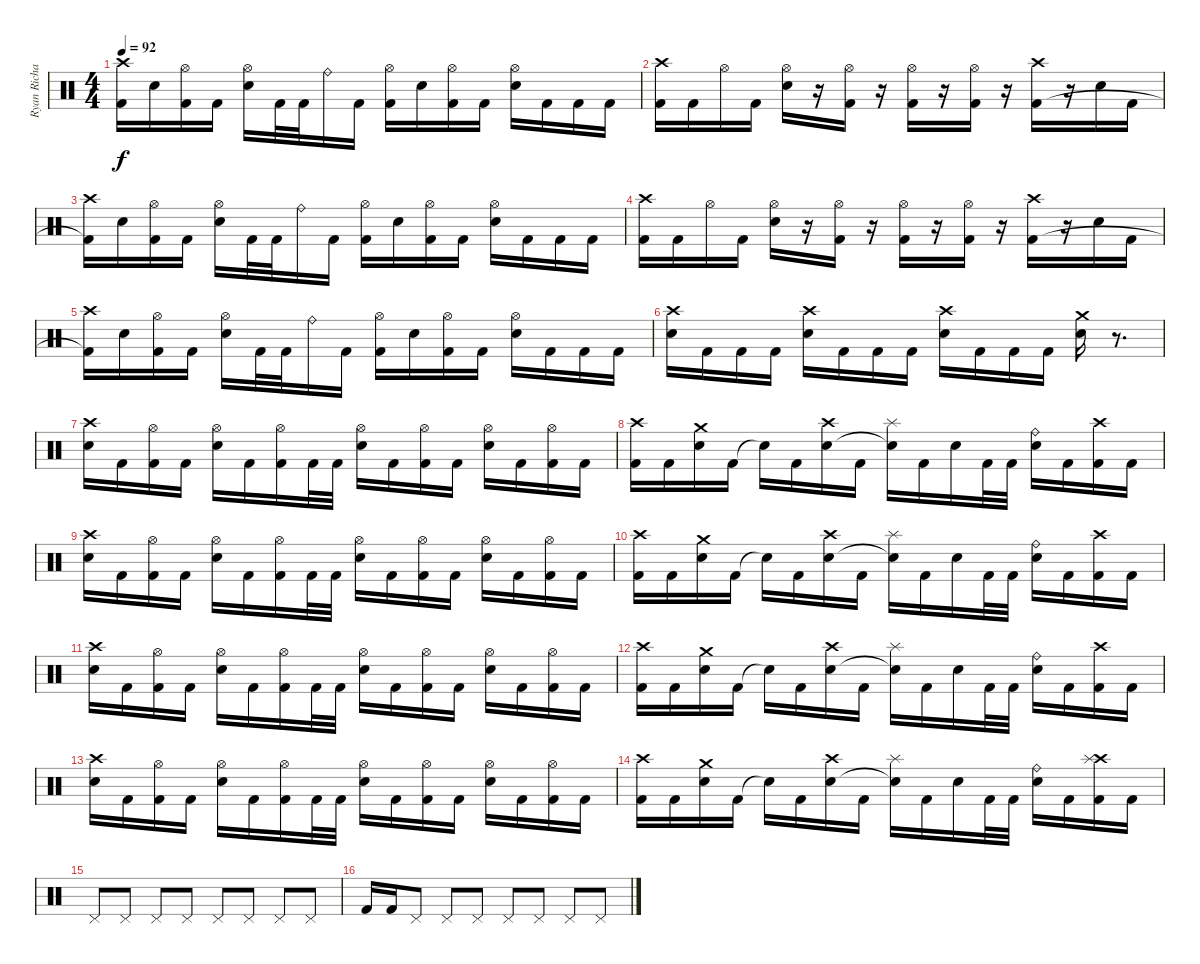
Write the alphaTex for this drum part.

\track ("Ryan Richards" "Ryan Richa") {instrument percussion}
\staff {score}
\articulation defaults
\ts (4 4)
\tempo 92
\clef neutral
\ks c
("Crash high (hit)" "Kick (hit) 2"{t}).16{dy f} "Snare (hit) 2".16 ("Hi-Hat (open)" "Kick (hit) 2").16 "Kick (hit) 2".16 ("Hi-Hat (open)" "Snare (hit) 2").16 "Kick (hit) 2".32 "Kick (hit) 2".32 "Ride (bell)".16 "Kick (hit) 2".16 ("Hi-Hat (open)" "Kick (hit) 2").16 "Snare (hit) 2".16 ("Hi-Hat (open)" "Kick (hit) 2").16 "Kick (hit) 2".16 ("Hi-Hat (open)" "Snare (hit) 2").16 "Kick (hit) 2".16 "Kick (hit) 2".16 "Kick (hit) 2".16 |
("Crash high (hit)" "Kick (hit) 2").16 "Kick (hit) 2".16 "Hi-Hat (open)".16 "Kick (hit) 2".16 ("Hi-Hat (open)" "Snare (hit) 2").16 r.16 ("Hi-Hat (open)" "Kick (hit) 2").16 r.16 ("Hi-Hat (open)" "Kick (hit) 2").16 r.16 ("Hi-Hat (open)" "Kick (hit) 2").16 r.16 ("Crash high (hit)" "Kick (hit) 2").16 r.16 "Snare (hit) 2".16 "Kick (hit) 2".16 |
("Crash high (hit)" "Kick (hit) 2"{t}).16 "Snare (hit) 2".16 ("Hi-Hat (open)" "Kick (hit) 2").16 "Kick (hit) 2".16 ("Hi-Hat (open)" "Snare (hit) 2").16 "Kick (hit) 2".32 "Kick (hit) 2".32 "Ride (bell)".16 "Kick (hit) 2".16 ("Hi-Hat (open)" "Kick (hit) 2").16 "Snare (hit) 2".16 ("Hi-Hat (open)" "Kick (hit) 2").16 "Kick (hit) 2".16 ("Hi-Hat (open)" "Snare (hit) 2").16 "Kick (hit) 2".16 "Kick (hit) 2".16 "Kick (hit) 2".16 |
("Crash high (hit)" "Kick (hit) 2").16 "Kick (hit) 2".16 "Hi-Hat (open)".16 "Kick (hit) 2".16 ("Hi-Hat (open)" "Snare (hit) 2").16 r.16 ("Hi-Hat (open)" "Kick (hit) 2").16 r.16 ("Hi-Hat (open)" "Kick (hit) 2").16 r.16 ("Hi-Hat (open)" "Kick (hit) 2").16 r.16 ("Crash high (hit)" "Kick (hit) 2").16 r.16 "Snare (hit) 2".16 "Kick (hit) 2".16 |
("Crash high (hit)" "Kick (hit) 2"{t}).16 "Snare (hit) 2".16 ("Hi-Hat (open)" "Kick (hit) 2").16 "Kick (hit) 2".16 ("Hi-Hat (open)" "Snare (hit) 2").16 "Kick (hit) 2".32 "Kick (hit) 2".32 "Ride (bell)".16 "Kick (hit) 2".16 ("Hi-Hat (open)" "Kick (hit) 2").16 "Snare (hit) 2".16 ("Hi-Hat (open)" "Kick (hit) 2").16 "Kick (hit) 2".16 ("Hi-Hat (open)" "Snare (hit) 2").16 "Kick (hit) 2".16 "Kick (hit) 2".16 "Kick (hit) 2".16 |
("Crash high (hit)" "Snare (hit) 2").16 "Kick (hit) 2".16 "Kick (hit) 2".16 "Kick (hit) 2".16 ("Crash high (hit)" "Snare (hit) 2").16 "Kick (hit) 2".16 "Kick (hit) 2".16 "Kick (hit) 2".16 ("Crash high (hit)" "Snare (hit) 2").16 "Kick (hit) 2".16 "Kick (hit) 2".16 "Kick (hit) 2".16 ("Crash medium (hit)" "Snare (hit) 2").16 r.8{d} |
("Crash high (hit)" "Snare (hit) 2").16 "Kick (hit) 2".16 ("Hi-Hat (open)" "Kick (hit) 2").16 "Kick (hit) 2".16 ("Hi-Hat (open)" "Snare (hit) 2").16 "Kick (hit) 2".16 ("Hi-Hat (open)" "Kick (hit) 2").16 "Kick (hit) 2".32 "Kick (hit) 2".32 ("Hi-Hat (open)" "Snare (hit) 2").16 "Kick (hit) 2".16 ("Hi-Hat (open)" "Kick (hit) 2").16 "Kick (hit) 2".16 ("Hi-Hat (open)" "Snare (hit) 2").16 "Kick (hit) 2".16 ("Hi-Hat (open)" "Kick (hit) 2").16 "Kick (hit) 2".16 |
("Crash high (hit)" "Kick (hit) 2").16 "Kick (hit) 2".16 ("Crash medium (hit)" "Snare (hit) 2").16 "Kick (hit) 2".16 "Snare (hit)"{t}.16 "Kick (hit) 2".16 ("Crash high (hit)" "Snare (hit) 2").16 "Kick (hit) 2".16 ("Splash (hit)" "Snare (hit)"{t}).16 "Kick (hit) 2".16 "Snare (hit) 2".16 "Kick (hit) 2".32 "Kick (hit) 2".32 ("Ride (bell)" "Snare (hit) 2").16 "Kick (hit) 2".16 ("Crash high (hit)" "Kick (hit) 2").16 "Kick (hit) 2".16 |
("Crash high (hit)" "Snare (hit) 2").16 "Kick (hit) 2".16 ("Hi-Hat (open)" "Kick (hit) 2").16 "Kick (hit) 2".16 ("Hi-Hat (open)" "Snare (hit) 2").16 "Kick (hit) 2".16 ("Hi-Hat (open)" "Kick (hit) 2").16 "Kick (hit) 2".32 "Kick (hit) 2".32 ("Hi-Hat (open)" "Snare (hit) 2").16 "Kick (hit) 2".16 ("Hi-Hat (open)" "Kick (hit) 2").16 "Kick (hit) 2".16 ("Hi-Hat (open)" "Snare (hit) 2").16 "Kick (hit) 2".16 ("Hi-Hat (open)" "Kick (hit) 2").16 "Kick (hit) 2".16 |
("Crash high (hit)" "Kick (hit) 2").16 "Kick (hit) 2".16 ("Crash medium (hit)" "Snare (hit) 2").16 "Kick (hit) 2".16 "Snare (hit)"{t}.16 "Kick (hit) 2".16 ("Crash high (hit)" "Snare (hit) 2").16 "Kick (hit) 2".16 ("Splash (hit)" "Snare (hit)"{t}).16 "Kick (hit) 2".16 "Snare (hit) 2".16 "Kick (hit) 2".32 "Kick (hit) 2".32 ("Ride (bell)" "Snare (hit) 2").16 "Kick (hit) 2".16 ("Crash high (hit)" "Kick (hit) 2").16 "Kick (hit) 2".16 |
("Crash high (hit)" "Snare (hit) 2").16 "Kick (hit) 2".16 ("Hi-Hat (open)" "Kick (hit) 2").16 "Kick (hit) 2".16 ("Hi-Hat (open)" "Snare (hit) 2").16 "Kick (hit) 2".16 ("Hi-Hat (open)" "Kick (hit) 2").16 "Kick (hit) 2".32 "Kick (hit) 2".32 ("Hi-Hat (open)" "Snare (hit) 2").16 "Kick (hit) 2".16 ("Hi-Hat (open)" "Kick (hit) 2").16 "Kick (hit) 2".16 ("Hi-Hat (open)" "Snare (hit) 2").16 "Kick (hit) 2".16 ("Hi-Hat (open)" "Kick (hit) 2").16 "Kick (hit) 2".16 |
("Crash high (hit)" "Kick (hit) 2").16 "Kick (hit) 2".16 ("Crash medium (hit)" "Snare (hit) 2").16 "Kick (hit) 2".16 "Snare (hit)"{t}.16 "Kick (hit) 2".16 ("Crash high (hit)" "Snare (hit) 2").16 "Kick (hit) 2".16 ("Splash (hit)" "Snare (hit)"{t}).16 "Kick (hit) 2".16 "Snare (hit) 2".16 "Kick (hit) 2".32 "Kick (hit) 2".32 ("Ride (bell)" "Snare (hit) 2").16 "Kick (hit) 2".16 ("Crash high (hit)" "Kick (hit) 2").16 "Kick (hit) 2".16 |
("Crash high (hit)" "Snare (hit) 2").16 "Kick (hit) 2".16 ("Hi-Hat (open)" "Kick (hit) 2").16 "Kick (hit) 2".16 ("Hi-Hat (open)" "Snare (hit) 2").16 "Kick (hit) 2".16 ("Hi-Hat (open)" "Kick (hit) 2").16 "Kick (hit) 2".32 "Kick (hit) 2".32 ("Hi-Hat (open)" "Snare (hit) 2").16 "Kick (hit) 2".16 ("Hi-Hat (open)" "Kick (hit) 2").16 "Kick (hit) 2".16 ("Hi-Hat (open)" "Snare (hit) 2").16 "Kick (hit) 2".16 ("Hi-Hat (open)" "Kick (hit) 2").16 "Kick (hit) 2".16 |
("Crash high (hit)" "Kick (hit) 2").16 "Kick (hit) 2".16 ("Crash medium (hit)" "Snare (hit) 2").16 "Kick (hit) 2".16 "Snare (hit)"{t}.16 "Kick (hit) 2".16 ("Crash high (hit)" "Snare (hit) 2").16 "Kick (hit) 2".16 ("Splash (hit)" "Snare (hit)"{t}).16 "Kick (hit) 2".16 "Snare (hit) 2".16 "Kick (hit) 2".32 "Kick (hit) 2".32 ("Ride (bell)" "Snare (hit) 2").16 "Kick (hit) 2".16 ("Crash high (hit)" "Splash (hit)" "Kick (hit) 2").16 "Kick (hit) 2".16 |
"Pedal Hi-Hat (hit)".8 "Pedal Hi-Hat (hit)".8 "Pedal Hi-Hat (hit)".8 "Pedal Hi-Hat (hit)".8 "Pedal Hi-Hat (hit)".8 "Pedal Hi-Hat (hit)".8 "Pedal Hi-Hat (hit)".8 "Pedal Hi-Hat (hit)".8 |
"Kick (hit) 2".16 "Kick (hit) 2".16 "Pedal Hi-Hat (hit)".8 "Pedal Hi-Hat (hit)".8 "Pedal Hi-Hat (hit)".8 "Pedal Hi-Hat (hit)".8 "Pedal Hi-Hat (hit)".8 "Pedal Hi-Hat (hit)".8 "Pedal Hi-Hat (hit)".8
